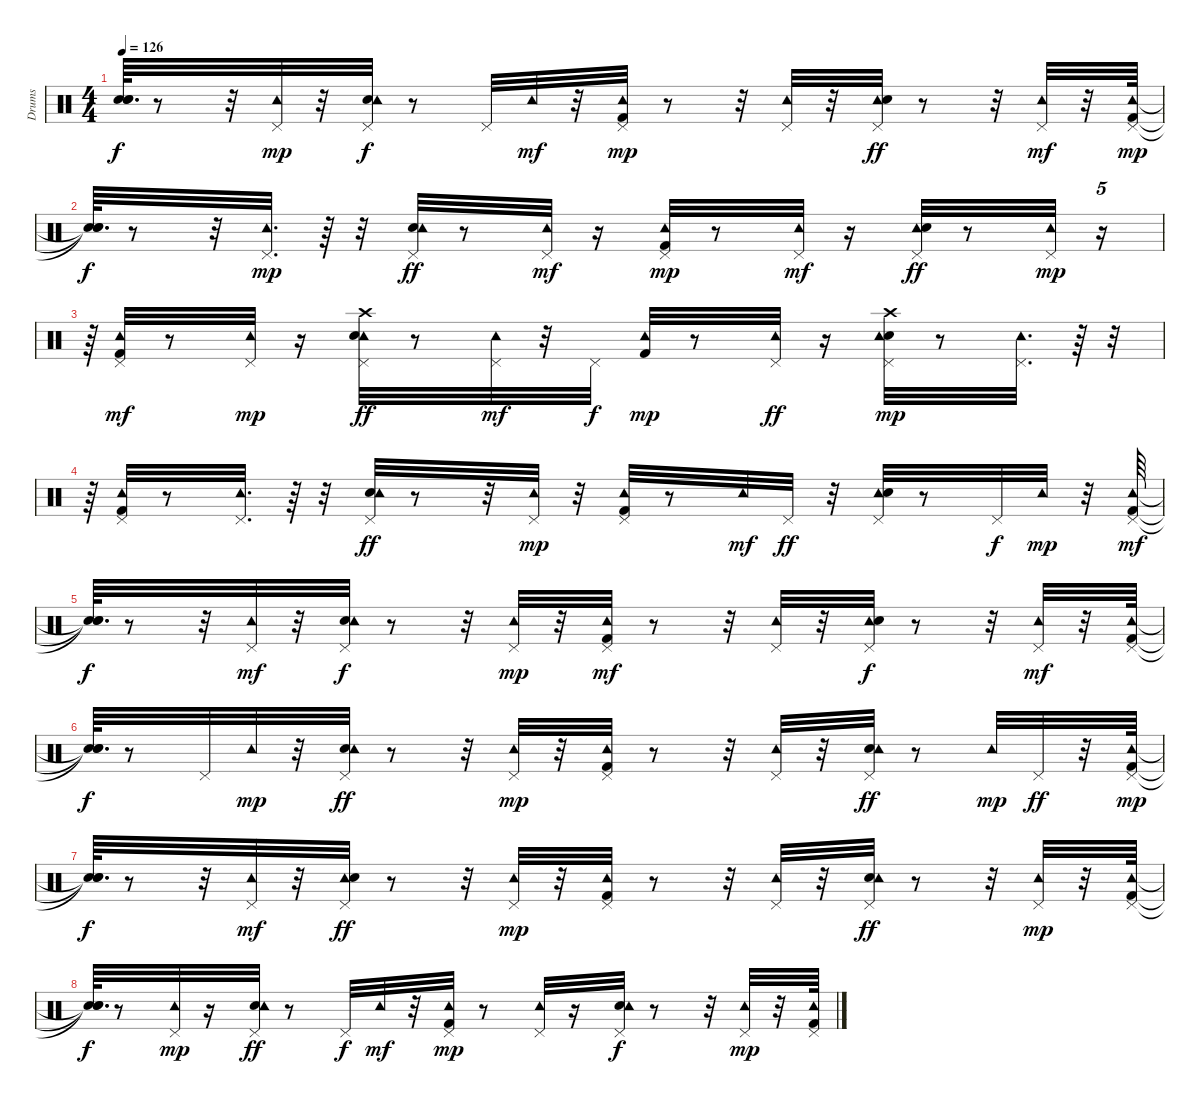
\track ("Drums" "Drums") {instrument percussion}
\staff {score}
\articulation defaults
\ts (4 4)
\tempo 126
\clef neutral
\ks c
("Snare (hit)"{t} "Snare (hit)"{t} "Snare (hit)"{t}).64{d dy f} r.8 r.32 ("Tambourine (hit)" "Pedal Hi-Hat (hit)").32{dy mp} r.32 ("Pedal Hi-Hat (hit)" "Electric Snare (hit)" "Tambourine (hit)").32{dy f} r.8 "Pedal Hi-Hat (hit)".32 "Tambourine (hit)".32{dy mf} r.32 ("Pedal Hi-Hat (hit)" "Kick (hit) 2" "Tambourine (hit)").32{dy mp} r.8 r.32 ("Pedal Hi-Hat (hit)" "Tambourine (hit)").32 r.32 ("Tambourine (hit)" "Pedal Hi-Hat (hit)" "Electric Snare (hit)").32{dy ff} r.8 r.32 ("Pedal Hi-Hat (hit)" "Tambourine (hit)").32{dy mf} r.32 ("Kick (hit) 2" "Tambourine (hit)" "Pedal Hi-Hat (hit)").64{dy mp} |
("Snare (hit)"{t} "Snare (hit)"{t} "Snare (hit)"{t}).64{d dy f} r.8 r.32 ("Pedal Hi-Hat (hit)" "Tambourine (hit)").32{d dy mp} r.64 r.32 ("Pedal Hi-Hat (hit)" "Electric Snare (hit)" "Tambourine (hit)").32{dy ff} r.8 ("Tambourine (hit)" "Pedal Hi-Hat (hit)").32{dy mf} r.16 ("Pedal Hi-Hat (hit)" "Kick (hit) 2" "Tambourine (hit)").32{dy mp} r.8 ("Pedal Hi-Hat (hit)" "Tambourine (hit)").32{dy mf} r.16 ("Tambourine (hit)" "Pedal Hi-Hat (hit)" "Electric Snare (hit)").32{dy ff} r.8 ("Pedal Hi-Hat (hit)" "Tambourine (hit)").32{dy mp} r.16{tu (5 4)} |
r.64{tu (5 4)} ("Kick (hit) 2" "Tambourine (hit)" "Pedal Hi-Hat (hit)").32{dy mf} r.8 ("Tambourine (hit)" "Pedal Hi-Hat (hit)").32{dy mp} r.16 ("Crash high (hit)" "Pedal Hi-Hat (hit)" "Tambourine (hit)" "Electric Snare (hit)").32{dy ff} r.8 ("Tambourine (hit)" "Pedal Hi-Hat (hit)").32{dy mf} r.32 "Pedal Hi-Hat (hit)".32{dy f} ("Tambourine (hit)" "Kick (hit) 2").32{dy mp} r.8 ("Tambourine (hit)" "Pedal Hi-Hat (hit)").32{dy ff} r.16 ("Electric Snare (hit)" "Pedal Hi-Hat (hit)" "Tambourine (hit)" "Crash high (hit)").32{dy mp} r.8 ("Pedal Hi-Hat (hit)" "Tambourine (hit)").32{d} r.64 r.32 |
r.64 ("Tambourine (hit)" "Kick (hit) 2" "Pedal Hi-Hat (hit)").32 r.8 ("Pedal Hi-Hat (hit)" "Tambourine (hit)").32{d} r.64 r.32 ("Electric Snare (hit)" "Tambourine (hit)" "Pedal Hi-Hat (hit)").32{dy ff} r.8 r.32 ("Tambourine (hit)" "Pedal Hi-Hat (hit)").32{dy mp} r.32 ("Pedal Hi-Hat (hit)" "Tambourine (hit)" "Kick (hit) 2").32 r.8 "Tambourine (hit)".32{dy mf} "Pedal Hi-Hat (hit)".32{dy ff} r.32 ("Tambourine (hit)" "Electric Snare (hit)" "Pedal Hi-Hat (hit)").32 r.8 "Pedal Hi-Hat (hit)".32{dy f} "Tambourine (hit)".32{dy mp} r.32 ("Kick (hit) 2" "Tambourine (hit)" "Pedal Hi-Hat (hit)").64{dy mf} |
("Snare (hit)"{t} "Snare (hit)"{t} "Snare (hit)"{t}).64{d dy f} r.8 r.32 ("Tambourine (hit)" "Pedal Hi-Hat (hit)").32{dy mf} r.32 ("Electric Snare (hit)" "Tambourine (hit)" "Pedal Hi-Hat (hit)").32{dy f} r.8 r.32 ("Pedal Hi-Hat (hit)" "Tambourine (hit)").32{dy mp} r.32 ("Pedal Hi-Hat (hit)" "Kick (hit) 2" "Tambourine (hit)").32{dy mf} r.8 r.32 ("Tambourine (hit)" "Pedal Hi-Hat (hit)").32 r.32 ("Tambourine (hit)" "Electric Snare (hit)" "Pedal Hi-Hat (hit)").32{dy f} r.8 r.32 ("Pedal Hi-Hat (hit)" "Tambourine (hit)").32{dy mf} r.32 ("Pedal Hi-Hat (hit)" "Kick (hit) 2" "Tambourine (hit)").64 |
("Snare (hit)"{t} "Snare (hit)"{t} "Snare (hit)"{t}).64{d dy f} r.8 "Pedal Hi-Hat (hit)".32 "Tambourine (hit)".32{dy mp} r.32 ("Electric Snare (hit)" "Tambourine (hit)" "Pedal Hi-Hat (hit)").32{dy ff} r.8 r.32 ("Pedal Hi-Hat (hit)" "Tambourine (hit)").32{dy mp} r.32 ("Kick (hit) 2" "Pedal Hi-Hat (hit)" "Tambourine (hit)").32 r.8 r.32 ("Tambourine (hit)" "Pedal Hi-Hat (hit)").32 r.32 ("Electric Snare (hit)" "Pedal Hi-Hat (hit)" "Tambourine (hit)").32{dy ff} r.8 "Tambourine (hit)".32{dy mp} "Pedal Hi-Hat (hit)".32{dy ff} r.32 ("Tambourine (hit)" "Kick (hit) 2" "Pedal Hi-Hat (hit)").64{dy mp} |
("Snare (hit)"{t} "Snare (hit)"{t} "Snare (hit)"{t}).64{d dy f} r.8 r.32 ("Pedal Hi-Hat (hit)" "Tambourine (hit)").32{dy mf} r.32 ("Tambourine (hit)" "Electric Snare (hit)" "Pedal Hi-Hat (hit)").32{dy ff} r.8 r.32 ("Tambourine (hit)" "Pedal Hi-Hat (hit)").32{dy mp} r.32 ("Kick (hit) 2" "Tambourine (hit)" "Pedal Hi-Hat (hit)").32 r.8 r.32 ("Pedal Hi-Hat (hit)" "Tambourine (hit)").32 r.32 ("Electric Snare (hit)" "Tambourine (hit)" "Pedal Hi-Hat (hit)").32{dy ff} r.8 r.32 ("Tambourine (hit)" "Pedal Hi-Hat (hit)").32{dy mp} r.32 ("Tambourine (hit)" "Kick (hit) 2" "Pedal Hi-Hat (hit)").64 |
("Snare (hit)"{t} "Snare (hit)"{t} "Snare (hit)"{t}).64{d dy f} r.8 ("Tambourine (hit)" "Pedal Hi-Hat (hit)").32{dy mp} r.16 ("Electric Snare (hit)" "Tambourine (hit)" "Pedal Hi-Hat (hit)").32{dy ff} r.8 "Pedal Hi-Hat (hit)".32{dy f} "Tambourine (hit)".32{dy mf} r.32 ("Pedal Hi-Hat (hit)" "Tambourine (hit)" "Kick (hit) 2").32{dy mp} r.8 ("Pedal Hi-Hat (hit)" "Tambourine (hit)").32 r.16 ("Pedal Hi-Hat (hit)" "Electric Snare (hit)" "Tambourine (hit)").32{dy f} r.8 r.32 ("Tambourine (hit)" "Pedal Hi-Hat (hit)").32{dy mp} r.32 ("Pedal Hi-Hat (hit)" "Tambourine (hit)" "Kick (hit) 2").64
